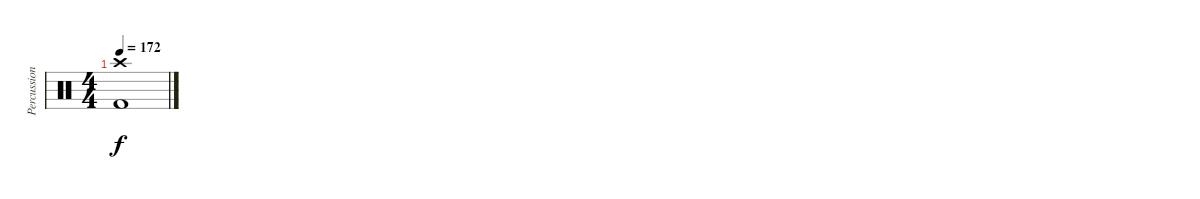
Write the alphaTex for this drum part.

\track ("Percussion" "Percussion") {instrument percussion}
\staff {score}
\articulation defaults
\ts (4 4)
\tempo 172
\clef neutral
\ks c
("Crash high (hit)" "Kick (hit) 2").1{dy f}
